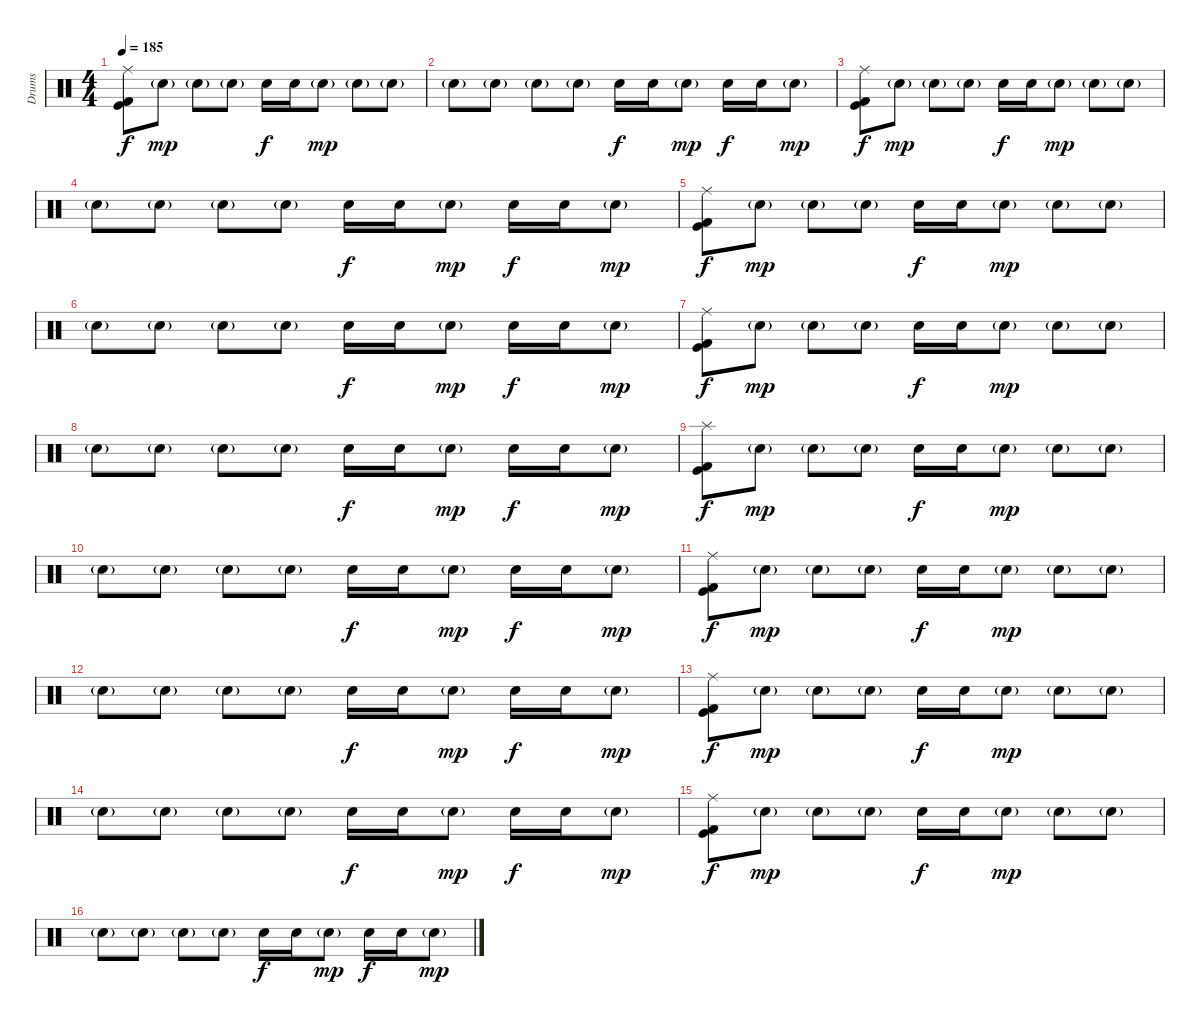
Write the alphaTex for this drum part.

\track ("Drums" "Drums") {instrument percussion}
\staff {score}
\articulation defaults
\ts (4 4)
\tempo 185
\clef neutral
\ks c
("Ride (middle)" "Kick (hit) 2" "Kick (hit)").8{dy f} "Electric Snare (hit)"{g}.8{dy mp} "Electric Snare (hit)"{g}.8 "Electric Snare (hit)"{g}.8 "Electric Snare (hit)".16{dy f} "Electric Snare (hit)".16 "Electric Snare (hit)"{g}.8{dy mp} "Electric Snare (hit)"{g}.8 "Electric Snare (hit)"{g}.8 |
"Electric Snare (hit)"{g}.8 "Electric Snare (hit)"{g}.8 "Electric Snare (hit)"{g}.8 "Electric Snare (hit)"{g}.8 "Electric Snare (hit)".16{dy f} "Electric Snare (hit)".16 "Electric Snare (hit)"{g}.8{dy mp} "Electric Snare (hit)".16{dy f} "Electric Snare (hit)".16 "Electric Snare (hit)"{g}.8{dy mp} |
("Ride (middle)" "Kick (hit) 2" "Kick (hit)").8{dy f} "Electric Snare (hit)"{g}.8{dy mp} "Electric Snare (hit)"{g}.8 "Electric Snare (hit)"{g}.8 "Electric Snare (hit)".16{dy f} "Electric Snare (hit)".16 "Electric Snare (hit)"{g}.8{dy mp} "Electric Snare (hit)"{g}.8 "Electric Snare (hit)"{g}.8 |
"Electric Snare (hit)"{g}.8 "Electric Snare (hit)"{g}.8 "Electric Snare (hit)"{g}.8 "Electric Snare (hit)"{g}.8 "Electric Snare (hit)".16{dy f} "Electric Snare (hit)".16 "Electric Snare (hit)"{g}.8{dy mp} "Electric Snare (hit)".16{dy f} "Electric Snare (hit)".16 "Electric Snare (hit)"{g}.8{dy mp} |
("Ride (middle)" "Kick (hit) 2" "Kick (hit)").8{dy f} "Electric Snare (hit)"{g}.8{dy mp} "Electric Snare (hit)"{g}.8 "Electric Snare (hit)"{g}.8 "Electric Snare (hit)".16{dy f} "Electric Snare (hit)".16 "Electric Snare (hit)"{g}.8{dy mp} "Electric Snare (hit)"{g}.8 "Electric Snare (hit)"{g}.8 |
"Electric Snare (hit)"{g}.8 "Electric Snare (hit)"{g}.8 "Electric Snare (hit)"{g}.8 "Electric Snare (hit)"{g}.8 "Electric Snare (hit)".16{dy f} "Electric Snare (hit)".16 "Electric Snare (hit)"{g}.8{dy mp} "Electric Snare (hit)".16{dy f} "Electric Snare (hit)".16 "Electric Snare (hit)"{g}.8{dy mp} |
("Ride (middle)" "Kick (hit) 2" "Kick (hit)").8{dy f} "Electric Snare (hit)"{g}.8{dy mp} "Electric Snare (hit)"{g}.8 "Electric Snare (hit)"{g}.8 "Electric Snare (hit)".16{dy f} "Electric Snare (hit)".16 "Electric Snare (hit)"{g}.8{dy mp} "Electric Snare (hit)"{g}.8 "Electric Snare (hit)"{g}.8 |
"Electric Snare (hit)"{g}.8 "Electric Snare (hit)"{g}.8 "Electric Snare (hit)"{g}.8 "Electric Snare (hit)"{g}.8 "Electric Snare (hit)".16{dy f} "Electric Snare (hit)".16 "Electric Snare (hit)"{g}.8{dy mp} "Electric Snare (hit)".16{dy f} "Electric Snare (hit)".16 "Electric Snare (hit)"{g}.8{dy mp} |
("Splash (hit)" "Kick (hit) 2" "Kick (hit)").8{dy f} "Electric Snare (hit)"{g}.8{dy mp} "Electric Snare (hit)"{g}.8 "Electric Snare (hit)"{g}.8 "Electric Snare (hit)".16{dy f} "Electric Snare (hit)".16 "Electric Snare (hit)"{g}.8{dy mp} "Electric Snare (hit)"{g}.8 "Electric Snare (hit)"{g}.8 |
"Electric Snare (hit)"{g}.8 "Electric Snare (hit)"{g}.8 "Electric Snare (hit)"{g}.8 "Electric Snare (hit)"{g}.8 "Electric Snare (hit)".16{dy f} "Electric Snare (hit)".16 "Electric Snare (hit)"{g}.8{dy mp} "Electric Snare (hit)".16{dy f} "Electric Snare (hit)".16 "Electric Snare (hit)"{g}.8{dy mp} |
("Ride (middle)" "Kick (hit) 2" "Kick (hit)").8{dy f} "Electric Snare (hit)"{g}.8{dy mp} "Electric Snare (hit)"{g}.8 "Electric Snare (hit)"{g}.8 "Electric Snare (hit)".16{dy f} "Electric Snare (hit)".16 "Electric Snare (hit)"{g}.8{dy mp} "Electric Snare (hit)"{g}.8 "Electric Snare (hit)"{g}.8 |
"Electric Snare (hit)"{g}.8 "Electric Snare (hit)"{g}.8 "Electric Snare (hit)"{g}.8 "Electric Snare (hit)"{g}.8 "Electric Snare (hit)".16{dy f} "Electric Snare (hit)".16 "Electric Snare (hit)"{g}.8{dy mp} "Electric Snare (hit)".16{dy f} "Electric Snare (hit)".16 "Electric Snare (hit)"{g}.8{dy mp} |
("Ride (middle)" "Kick (hit) 2" "Kick (hit)").8{dy f} "Electric Snare (hit)"{g}.8{dy mp} "Electric Snare (hit)"{g}.8 "Electric Snare (hit)"{g}.8 "Electric Snare (hit)".16{dy f} "Electric Snare (hit)".16 "Electric Snare (hit)"{g}.8{dy mp} "Electric Snare (hit)"{g}.8 "Electric Snare (hit)"{g}.8 |
"Electric Snare (hit)"{g}.8 "Electric Snare (hit)"{g}.8 "Electric Snare (hit)"{g}.8 "Electric Snare (hit)"{g}.8 "Electric Snare (hit)".16{dy f} "Electric Snare (hit)".16 "Electric Snare (hit)"{g}.8{dy mp} "Electric Snare (hit)".16{dy f} "Electric Snare (hit)".16 "Electric Snare (hit)"{g}.8{dy mp} |
("Ride (middle)" "Kick (hit) 2" "Kick (hit)").8{dy f} "Electric Snare (hit)"{g}.8{dy mp} "Electric Snare (hit)"{g}.8 "Electric Snare (hit)"{g}.8 "Electric Snare (hit)".16{dy f} "Electric Snare (hit)".16 "Electric Snare (hit)"{g}.8{dy mp} "Electric Snare (hit)"{g}.8 "Electric Snare (hit)"{g}.8 |
"Electric Snare (hit)"{g}.8 "Electric Snare (hit)"{g}.8 "Electric Snare (hit)"{g}.8 "Electric Snare (hit)"{g}.8 "Electric Snare (hit)".16{dy f} "Electric Snare (hit)".16 "Electric Snare (hit)"{g}.8{dy mp} "Electric Snare (hit)".16{dy f} "Electric Snare (hit)".16 "Electric Snare (hit)"{g}.8{dy mp}
